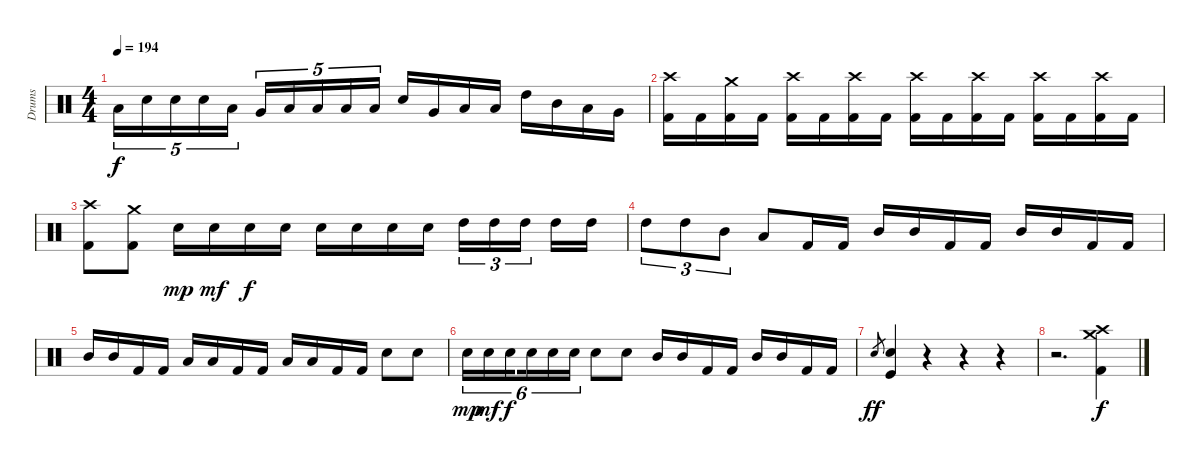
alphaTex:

\track ("Drums" "Drums") {instrument percussion}
\staff {score}
\articulation defaults
\ts (4 4)
\tempo 194
\clef neutral
\ks c "Low Floor Tom (hit)".16{tu (5 4) dy f} "Snare (hit) 2".16{tu (5 4)} "Snare (hit) 2".16{tu (5 4)} "Snare (hit) 2".16{tu (5 4)} "Low Tom (hit)".16{tu (5 4)} "Very Low Tom (hit)".16{tu (5 4)} "Low Floor Tom (hit)".16{tu (5 4)} "Low Floor Tom (hit)".16{tu (5 4)} "Low Floor Tom (hit)".16{tu (5 4)} "Low Floor Tom (hit)".16{tu (5 4)} "Snare (hit) 2".16 "Very Low Tom (hit)".16 "Low Floor Tom (hit)".16 "Low Floor Tom (hit)".16 "High Tom (hit)".16 "Mid Tom (hit)".16 "Low Tom (hit)".16 "Very Low Tom (hit)".16
|
("Crash high (hit)" "Kick (hit) 2").16 "Kick (hit) 2".16 ("Crash medium (hit)" "Kick (hit) 2").16 "Kick (hit) 2".16 ("Crash high (hit)" "Kick (hit) 2").16 "Kick (hit) 2".16 ("Crash high (hit)" "Kick (hit) 2").16 "Kick (hit) 2".16 ("Crash high (hit)" "Kick (hit) 2").16 "Kick (hit) 2".16 ("Crash high (hit)" "Kick (hit) 2").16 "Kick (hit) 2".16 ("Crash high (hit)" "Kick (hit) 2").16 "Kick (hit) 2".16 ("Crash high (hit)" "Kick (hit) 2").16 "Kick (hit) 2".16 |
("Crash high (hit)" "Kick (hit) 2").8 ("Crash medium (hit)" "Kick (hit) 2").8 "Snare (hit) 2".16{dy mp} "Snare (hit) 2".16{dy mf} "Snare (hit) 2".16{dy f} "Snare (hit) 2".16 "Snare (hit) 2".16 "Snare (hit) 2".16 "Snare (hit) 2".16 "Snare (hit) 2".16 "High Tom (hit)".16{tu (3 2)} "High Tom (hit)".16{tu (3 2)} "High Tom (hit)".16{tu (3 2) beam splitsecondary} "High Tom (hit)".16 "High Tom (hit)".16 |
"High Tom (hit)".8{tu (3 2)} "High Tom (hit)".8{tu (3 2)} "Mid Tom (hit)".8{tu (3 2)} "Low Tom (hit)".8 "Kick (hit) 2".16 "Kick (hit) 2".16 "Mid Tom (hit)".16 "Mid Tom (hit)".16 "Kick (hit) 2".16 "Kick (hit) 2".16 "Mid Tom (hit)".16 "Mid Tom (hit)".16 "Kick (hit) 2".16 "Kick (hit) 2".16 |
"Mid Tom (hit)".16 "Mid Tom (hit)".16 "Kick (hit) 2".16 "Kick (hit) 2".16 "Low Tom (hit)".16 "Low Tom (hit)".16 "Kick (hit) 2".16 "Kick (hit) 2".16 "Low Tom (hit)".16 "Low Tom (hit)".16 "Kick (hit) 2".16 "Kick (hit) 2".16 "Snare (hit) 2".8 "Snare (hit) 2".8 |
"Snare (hit) 2".16{tu (6 4) dy mp} "Snare (hit) 2".16{tu (6 4) dy mf} "Snare (hit) 2".16{tu (6 4) dy f beam splitsecondary} "Snare (hit) 2".16{tu (6 4)} "Snare (hit) 2".16{tu (6 4)} "Snare (hit) 2".16{tu (6 4)} "Snare (hit) 2".8 "Snare (hit) 2".8 "Mid Tom (hit)".16 "Mid Tom (hit)".16 "Kick (hit) 2".16 "Kick (hit) 2".16 "Mid Tom (hit)".16 "Mid Tom (hit)".16 "Kick (hit) 2".16 "Kick (hit) 2".16 |
"Snare (hit) 2".8{gr dy ff} ("Snare (hit) 2" "Kick (hit)").4 r.4 r.4 r.4 |
r.2{d} ("Crash medium (hit)" "Crash high (hit)" "Kick (hit) 2").4{dy f}
